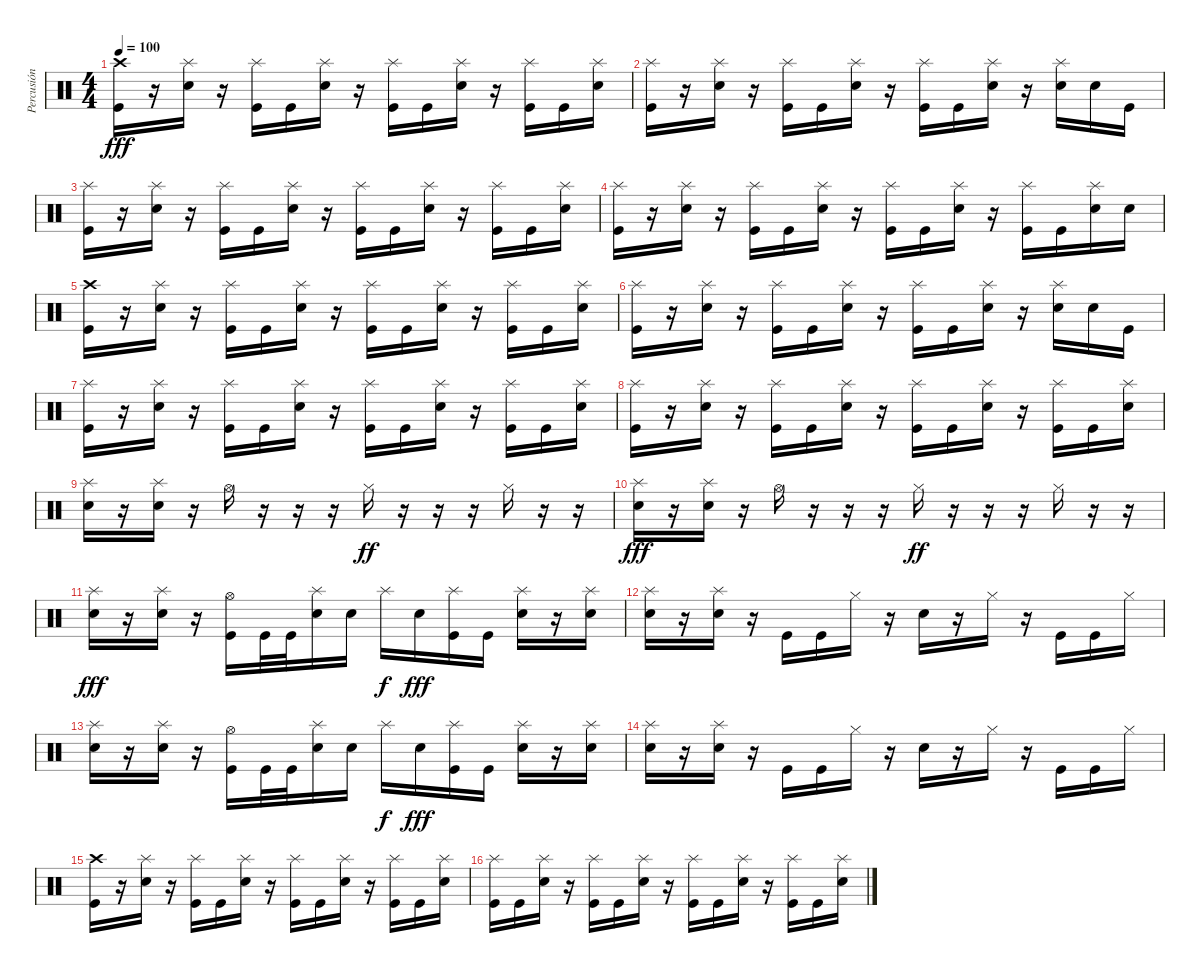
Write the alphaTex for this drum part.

\track ("Percusión" "Percusión") {instrument percussion}
\staff {score}
\articulation defaults
\ts (4 4)
\tempo 100
\clef neutral
\ks c
("Crash high (hit)" "Kick (hit)").16{dy fff} r.16 ("Splash (hit)" "Snare (hit) 2").16 r.16 ("Splash (hit)" "Kick (hit)").16 "Kick (hit)".16 ("Splash (hit)" "Snare (hit) 2").16 r.16 ("Splash (hit)" "Kick (hit)").16 "Kick (hit)".16 ("Splash (hit)" "Snare (hit) 2").16 r.16 ("Splash (hit)" "Kick (hit)").16 "Kick (hit)".16 ("Splash (hit)" "Snare (hit) 2").16 |
("Splash (hit)" "Kick (hit)").16 r.16 ("Splash (hit)" "Snare (hit) 2").16 r.16 ("Splash (hit)" "Kick (hit)").16 "Kick (hit)".16 ("Splash (hit)" "Snare (hit) 2").16 r.16 ("Splash (hit)" "Kick (hit)").16 "Kick (hit)".16 ("Splash (hit)" "Snare (hit) 2").16 r.16 ("Splash (hit)" "Snare (hit) 2").16 "Snare (hit) 2".16 "Kick (hit)".16 |
("Splash (hit)" "Kick (hit)").16 r.16 ("Splash (hit)" "Snare (hit) 2").16 r.16 ("Splash (hit)" "Kick (hit)").16 "Kick (hit)".16 ("Splash (hit)" "Snare (hit) 2").16 r.16 ("Splash (hit)" "Kick (hit)").16 "Kick (hit)".16 ("Splash (hit)" "Snare (hit) 2").16 r.16 ("Splash (hit)" "Kick (hit)").16 "Kick (hit)".16 ("Splash (hit)" "Snare (hit) 2").16 |
("Splash (hit)" "Kick (hit)").16 r.16 ("Splash (hit)" "Snare (hit) 2").16 r.16 ("Splash (hit)" "Kick (hit)").16 "Kick (hit)".16 ("Splash (hit)" "Snare (hit) 2").16 r.16 ("Splash (hit)" "Kick (hit)").16 "Kick (hit)".16 ("Splash (hit)" "Snare (hit) 2").16 r.16 ("Splash (hit)" "Kick (hit)").16 "Kick (hit)".16 ("Splash (hit)" "Snare (hit) 2").16 "Snare (hit) 2".16 |
("Crash high (hit)" "Kick (hit)").16 r.16 ("Splash (hit)" "Snare (hit) 2").16 r.16 ("Splash (hit)" "Kick (hit)").16 "Kick (hit)".16 ("Splash (hit)" "Snare (hit) 2").16 r.16 ("Splash (hit)" "Kick (hit)").16 "Kick (hit)".16 ("Splash (hit)" "Snare (hit) 2").16 r.16 ("Splash (hit)" "Kick (hit)").16 "Kick (hit)".16 ("Splash (hit)" "Snare (hit) 2").16 |
("Splash (hit)" "Kick (hit)").16 r.16 ("Splash (hit)" "Snare (hit) 2").16 r.16 ("Splash (hit)" "Kick (hit)").16 "Kick (hit)".16 ("Splash (hit)" "Snare (hit) 2").16 r.16 ("Splash (hit)" "Kick (hit)").16 "Kick (hit)".16 ("Splash (hit)" "Snare (hit) 2").16 r.16 ("Splash (hit)" "Snare (hit) 2").16 "Snare (hit) 2".16 "Kick (hit)".16 |
("Splash (hit)" "Kick (hit)").16 r.16 ("Splash (hit)" "Snare (hit) 2").16 r.16 ("Splash (hit)" "Kick (hit)").16 "Kick (hit)".16 ("Splash (hit)" "Snare (hit) 2").16 r.16 ("Splash (hit)" "Kick (hit)").16 "Kick (hit)".16 ("Splash (hit)" "Snare (hit) 2").16 r.16 ("Splash (hit)" "Kick (hit)").16 "Kick (hit)".16 ("Splash (hit)" "Snare (hit) 2").16 |
("Splash (hit)" "Kick (hit)").16 r.16 ("Splash (hit)" "Snare (hit) 2").16 r.16 ("Splash (hit)" "Kick (hit)").16 "Kick (hit)".16 ("Splash (hit)" "Snare (hit) 2").16 r.16 ("Splash (hit)" "Kick (hit)").16 "Kick (hit)".16 ("Splash (hit)" "Snare (hit) 2").16 r.16 ("Splash (hit)" "Kick (hit)").16 "Kick (hit)".16 ("Splash (hit)" "Snare (hit) 2").16 |
("Splash (hit)" "Snare (hit) 2").16 r.16 ("Splash (hit)" "Snare (hit) 2").16 r.16 "Hi-Hat (open)".16 r.16 r.16 r.16 "Hi-Hat (closed)".16{dy ff} r.16 r.16 r.16 "Hi-Hat (closed)".16 r.16 r.16 |
("Splash (hit)" "Snare (hit) 2").16{dy fff} r.16 ("Splash (hit)" "Snare (hit) 2").16 r.16 "Hi-Hat (open)".16 r.16 r.16 r.16 "Hi-Hat (closed)".16{dy ff} r.16 r.16 r.16 "Hi-Hat (closed)".16 r.16 r.16 |
("Splash (hit)" "Snare (hit) 2").16{dy fff} r.16 ("Splash (hit)" "Snare (hit) 2").16 r.16 ("Hi-Hat (open)" "Kick (hit)").16 "Kick (hit)".32 "Kick (hit)".32 ("Splash (hit)" "Snare (hit) 2").16 "Snare (hit) 2".16 "Splash (hit)".16{dy f} "Snare (hit) 2".16{dy fff} ("Splash (hit)" "Kick (hit)").16 "Kick (hit)".16 ("Splash (hit)" "Snare (hit) 2").16 r.16 ("Splash (hit)" "Snare (hit) 2").16 |
("Splash (hit)" "Snare (hit) 2").16 r.16 ("Splash (hit)" "Snare (hit) 2").16 r.16 "Kick (hit)".16 "Kick (hit)".16 "Hi-Hat (closed)".16 r.16 "Snare (hit) 2".16 r.16 "Hi-Hat (closed)".16 r.16 "Kick (hit)".16 "Kick (hit)".16 "Hi-Hat (closed)".16 |
("Splash (hit)" "Snare (hit) 2").16 r.16 ("Splash (hit)" "Snare (hit) 2").16 r.16 ("Hi-Hat (open)" "Kick (hit)").16 "Kick (hit)".32 "Kick (hit)".32 ("Splash (hit)" "Snare (hit) 2").16 "Snare (hit) 2".16 "Splash (hit)".16{dy f} "Snare (hit) 2".16{dy fff} ("Splash (hit)" "Kick (hit)").16 "Kick (hit)".16 ("Splash (hit)" "Snare (hit) 2").16 r.16 ("Splash (hit)" "Snare (hit) 2").16 |
("Splash (hit)" "Snare (hit) 2").16 r.16 ("Splash (hit)" "Snare (hit) 2").16 r.16 "Kick (hit)".16 "Kick (hit)".16 "Hi-Hat (closed)".16 r.16 "Snare (hit) 2".16 r.16 "Hi-Hat (closed)".16 r.16 "Kick (hit)".16 "Kick (hit)".16 "Hi-Hat (closed)".16 |
("Crash high (hit)" "Kick (hit)").16 r.16 ("Splash (hit)" "Snare (hit) 2").16 r.16 ("Splash (hit)" "Kick (hit)").16 "Kick (hit)".16 ("Splash (hit)" "Snare (hit) 2").16 r.16 ("Splash (hit)" "Kick (hit)").16 "Kick (hit)".16 ("Splash (hit)" "Snare (hit) 2").16 r.16 ("Splash (hit)" "Kick (hit)").16 "Kick (hit)".16 ("Splash (hit)" "Snare (hit) 2").16 |
("Splash (hit)" "Kick (hit)").16 "Kick (hit)".16 ("Splash (hit)" "Snare (hit) 2").16 r.16 ("Splash (hit)" "Kick (hit)").16 "Kick (hit)".16 ("Splash (hit)" "Snare (hit) 2").16 r.16 ("Splash (hit)" "Kick (hit)").16 "Kick (hit)".16 ("Splash (hit)" "Snare (hit) 2").16 r.16 ("Splash (hit)" "Kick (hit)").16 "Kick (hit)".16 ("Splash (hit)" "Snare (hit) 2").16
